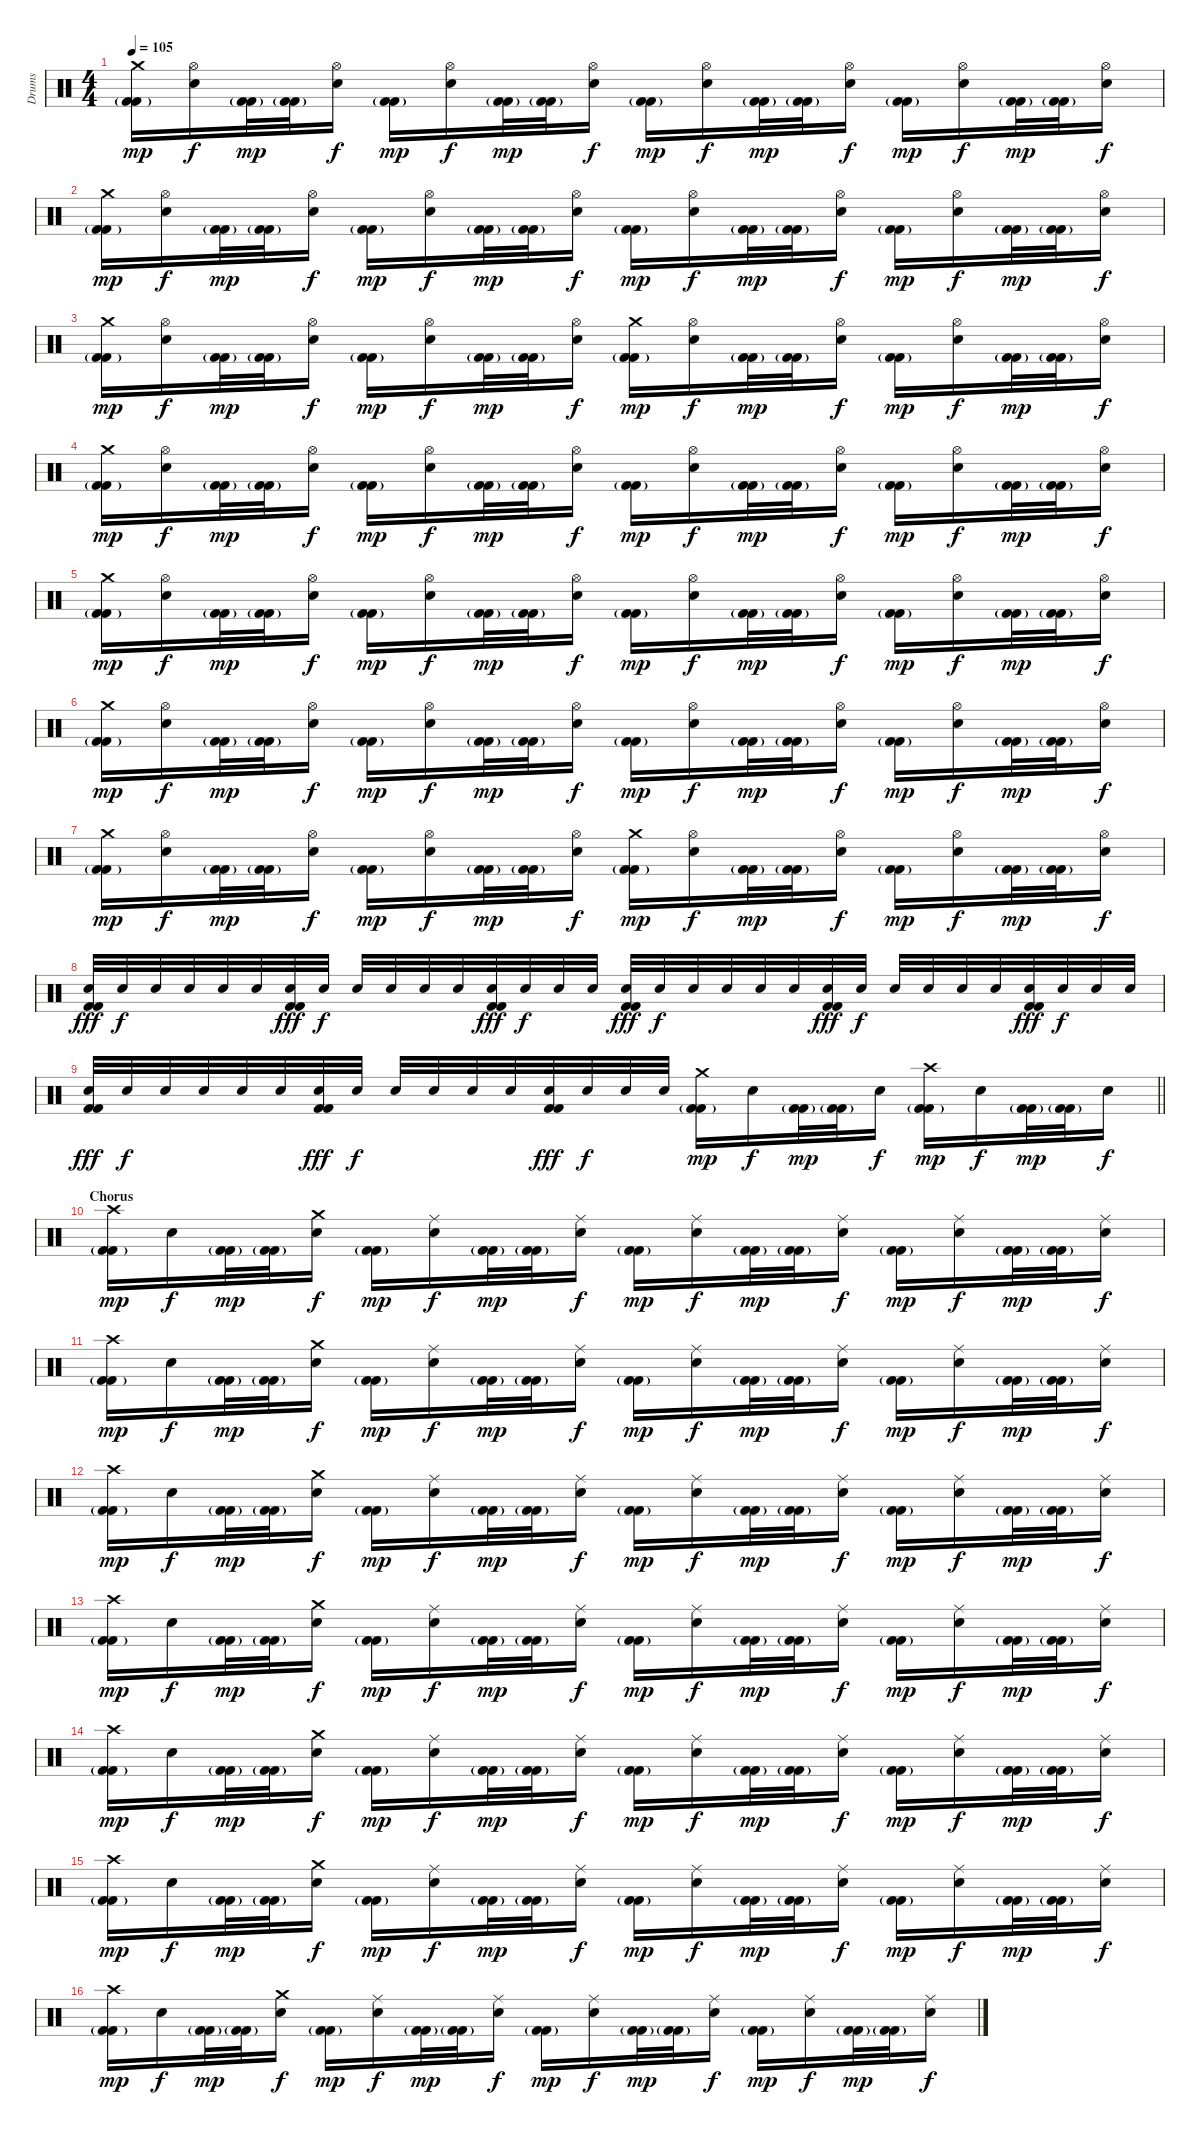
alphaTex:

\track ("Drums" "Drums") {instrument percussion}
\staff {score}
\articulation defaults
\ts (4 4)
\tempo 105
\clef neutral
\ks c
("Crash medium (hit)" "Kick (hit) 2"{g} "Kick (hit) 2").16{dy mp} ("Hi-Hat (open)" "Electric Snare (hit)").16{dy f} ("Kick (hit) 2"{g} "Kick (hit) 2").32{dy mp} ("Kick (hit) 2"{g} "Kick (hit) 2").32 ("Hi-Hat (open)" "Electric Snare (hit)").16{dy f} ("Kick (hit) 2"{g} "Kick (hit) 2").16{dy mp} ("Hi-Hat (open)" "Electric Snare (hit)").16{dy f} ("Kick (hit) 2"{g} "Kick (hit) 2").32{dy mp} ("Kick (hit) 2"{g} "Kick (hit) 2").32 ("Hi-Hat (open)" "Electric Snare (hit)").16{dy f} ("Kick (hit) 2"{g} "Kick (hit) 2").16{dy mp} ("Hi-Hat (open)" "Electric Snare (hit)").16{dy f} ("Kick (hit) 2"{g} "Kick (hit) 2").32{dy mp} ("Kick (hit) 2"{g} "Kick (hit) 2").32 ("Hi-Hat (open)" "Electric Snare (hit)").16{dy f} ("Kick (hit) 2"{g} "Kick (hit) 2").16{dy mp} ("Hi-Hat (open)" "Electric Snare (hit)").16{dy f} ("Kick (hit) 2"{g} "Kick (hit) 2").32{dy mp} ("Kick (hit) 2"{g} "Kick (hit) 2").32 ("Hi-Hat (open)" "Electric Snare (hit)").16{dy f} |
("Crash medium (hit)" "Kick (hit) 2"{g} "Kick (hit) 2").16{dy mp} ("Hi-Hat (open)" "Electric Snare (hit)").16{dy f} ("Kick (hit) 2"{g} "Kick (hit) 2").32{dy mp} ("Kick (hit) 2"{g} "Kick (hit) 2").32 ("Hi-Hat (open)" "Electric Snare (hit)").16{dy f} ("Kick (hit) 2"{g} "Kick (hit) 2").16{dy mp} ("Hi-Hat (open)" "Electric Snare (hit)").16{dy f} ("Kick (hit) 2"{g} "Kick (hit) 2").32{dy mp} ("Kick (hit) 2"{g} "Kick (hit) 2").32 ("Hi-Hat (open)" "Electric Snare (hit)").16{dy f} ("Kick (hit) 2"{g} "Kick (hit) 2").16{dy mp} ("Hi-Hat (open)" "Electric Snare (hit)").16{dy f} ("Kick (hit) 2"{g} "Kick (hit) 2").32{dy mp} ("Kick (hit) 2"{g} "Kick (hit) 2").32 ("Hi-Hat (open)" "Electric Snare (hit)").16{dy f} ("Kick (hit) 2"{g} "Kick (hit) 2").16{dy mp} ("Hi-Hat (open)" "Electric Snare (hit)").16{dy f} ("Kick (hit) 2"{g} "Kick (hit) 2").32{dy mp} ("Kick (hit) 2"{g} "Kick (hit) 2").32 ("Hi-Hat (open)" "Electric Snare (hit)").16{dy f} |
("Crash medium (hit)" "Kick (hit) 2"{g} "Kick (hit) 2").16{dy mp} ("Hi-Hat (open)" "Electric Snare (hit)").16{dy f} ("Kick (hit) 2"{g} "Kick (hit) 2").32{dy mp} ("Kick (hit) 2"{g} "Kick (hit) 2").32 ("Hi-Hat (open)" "Electric Snare (hit)").16{dy f} ("Kick (hit) 2"{g} "Kick (hit) 2").16{dy mp} ("Hi-Hat (open)" "Electric Snare (hit)").16{dy f} ("Kick (hit) 2"{g} "Kick (hit) 2").32{dy mp} ("Kick (hit) 2"{g} "Kick (hit) 2").32 ("Hi-Hat (open)" "Electric Snare (hit)").16{dy f} ("Crash medium (hit)" "Kick (hit) 2"{g} "Kick (hit) 2").16{dy mp} ("Hi-Hat (open)" "Electric Snare (hit)").16{dy f} ("Kick (hit) 2"{g} "Kick (hit) 2").32{dy mp} ("Kick (hit) 2"{g} "Kick (hit) 2").32 ("Hi-Hat (open)" "Electric Snare (hit)").16{dy f} ("Kick (hit) 2"{g} "Kick (hit) 2").16{dy mp} ("Hi-Hat (open)" "Electric Snare (hit)").16{dy f} ("Kick (hit) 2"{g} "Kick (hit) 2").32{dy mp} ("Kick (hit) 2"{g} "Kick (hit) 2").32 ("Hi-Hat (open)" "Electric Snare (hit)").16{dy f} |
("Crash medium (hit)" "Kick (hit) 2"{g} "Kick (hit) 2").16{dy mp} ("Hi-Hat (open)" "Electric Snare (hit)").16{dy f} ("Kick (hit) 2"{g} "Kick (hit) 2").32{dy mp} ("Kick (hit) 2"{g} "Kick (hit) 2").32 ("Hi-Hat (open)" "Electric Snare (hit)").16{dy f} ("Kick (hit) 2"{g} "Kick (hit) 2").16{dy mp} ("Hi-Hat (open)" "Electric Snare (hit)").16{dy f} ("Kick (hit) 2"{g} "Kick (hit) 2").32{dy mp} ("Kick (hit) 2"{g} "Kick (hit) 2").32 ("Hi-Hat (open)" "Electric Snare (hit)").16{dy f} ("Kick (hit) 2"{g} "Kick (hit) 2").16{dy mp} ("Hi-Hat (open)" "Electric Snare (hit)").16{dy f} ("Kick (hit) 2"{g} "Kick (hit) 2").32{dy mp} ("Kick (hit) 2"{g} "Kick (hit) 2").32 ("Hi-Hat (open)" "Electric Snare (hit)").16{dy f} ("Kick (hit) 2"{g} "Kick (hit) 2").16{dy mp} ("Hi-Hat (open)" "Electric Snare (hit)").16{dy f} ("Kick (hit) 2"{g} "Kick (hit) 2").32{dy mp} ("Kick (hit) 2"{g} "Kick (hit) 2").32 ("Hi-Hat (open)" "Electric Snare (hit)").16{dy f} |
("Crash medium (hit)" "Kick (hit) 2"{g} "Kick (hit) 2").16{dy mp} ("Hi-Hat (open)" "Electric Snare (hit)").16{dy f} ("Kick (hit) 2"{g} "Kick (hit) 2").32{dy mp} ("Kick (hit) 2"{g} "Kick (hit) 2").32 ("Hi-Hat (open)" "Electric Snare (hit)").16{dy f} ("Kick (hit) 2"{g} "Kick (hit) 2").16{dy mp} ("Hi-Hat (open)" "Electric Snare (hit)").16{dy f} ("Kick (hit) 2"{g} "Kick (hit) 2").32{dy mp} ("Kick (hit) 2"{g} "Kick (hit) 2").32 ("Hi-Hat (open)" "Electric Snare (hit)").16{dy f} ("Kick (hit) 2"{g} "Kick (hit) 2").16{dy mp} ("Hi-Hat (open)" "Electric Snare (hit)").16{dy f} ("Kick (hit) 2"{g} "Kick (hit) 2").32{dy mp} ("Kick (hit) 2"{g} "Kick (hit) 2").32 ("Hi-Hat (open)" "Electric Snare (hit)").16{dy f} ("Kick (hit) 2"{g} "Kick (hit) 2").16{dy mp} ("Hi-Hat (open)" "Electric Snare (hit)").16{dy f} ("Kick (hit) 2"{g} "Kick (hit) 2").32{dy mp} ("Kick (hit) 2"{g} "Kick (hit) 2").32 ("Hi-Hat (open)" "Electric Snare (hit)").16{dy f} |
("Crash medium (hit)" "Kick (hit) 2"{g} "Kick (hit) 2").16{dy mp} ("Hi-Hat (open)" "Electric Snare (hit)").16{dy f} ("Kick (hit) 2"{g} "Kick (hit) 2").32{dy mp} ("Kick (hit) 2"{g} "Kick (hit) 2").32 ("Hi-Hat (open)" "Electric Snare (hit)").16{dy f} ("Kick (hit) 2"{g} "Kick (hit) 2").16{dy mp} ("Hi-Hat (open)" "Electric Snare (hit)").16{dy f} ("Kick (hit) 2"{g} "Kick (hit) 2").32{dy mp} ("Kick (hit) 2"{g} "Kick (hit) 2").32 ("Hi-Hat (open)" "Electric Snare (hit)").16{dy f} ("Kick (hit) 2"{g} "Kick (hit) 2").16{dy mp} ("Hi-Hat (open)" "Electric Snare (hit)").16{dy f} ("Kick (hit) 2"{g} "Kick (hit) 2").32{dy mp} ("Kick (hit) 2"{g} "Kick (hit) 2").32 ("Hi-Hat (open)" "Electric Snare (hit)").16{dy f} ("Kick (hit) 2"{g} "Kick (hit) 2").16{dy mp} ("Hi-Hat (open)" "Electric Snare (hit)").16{dy f} ("Kick (hit) 2"{g} "Kick (hit) 2").32{dy mp} ("Kick (hit) 2"{g} "Kick (hit) 2").32 ("Hi-Hat (open)" "Electric Snare (hit)").16{dy f} |
("Crash medium (hit)" "Kick (hit) 2"{g} "Kick (hit) 2").16{dy mp} ("Hi-Hat (open)" "Electric Snare (hit)").16{dy f} ("Kick (hit) 2"{g} "Kick (hit) 2").32{dy mp} ("Kick (hit) 2"{g} "Kick (hit) 2").32 ("Hi-Hat (open)" "Electric Snare (hit)").16{dy f} ("Kick (hit) 2"{g} "Kick (hit) 2").16{dy mp} ("Hi-Hat (open)" "Electric Snare (hit)").16{dy f} ("Kick (hit) 2"{g} "Kick (hit) 2").32{dy mp} ("Kick (hit) 2"{g} "Kick (hit) 2").32 ("Hi-Hat (open)" "Electric Snare (hit)").16{dy f} ("Crash medium (hit)" "Kick (hit) 2"{g} "Kick (hit) 2").16{dy mp} ("Hi-Hat (open)" "Electric Snare (hit)").16{dy f} ("Kick (hit) 2"{g} "Kick (hit) 2").32{dy mp} ("Kick (hit) 2"{g} "Kick (hit) 2").32 ("Hi-Hat (open)" "Electric Snare (hit)").16{dy f} ("Kick (hit) 2"{g} "Kick (hit) 2").16{dy mp} ("Hi-Hat (open)" "Electric Snare (hit)").16{dy f} ("Kick (hit) 2"{g} "Kick (hit) 2").32{dy mp} ("Kick (hit) 2"{g} "Kick (hit) 2").32 ("Hi-Hat (open)" "Electric Snare (hit)").16{dy f} |
("Electric Snare (hit)" "Kick (hit) 2" "Kick (hit) 2").32{dy fff} "Electric Snare (hit)".32{dy f} "Electric Snare (hit)".32 "Electric Snare (hit)".32 "Electric Snare (hit)".32 "Electric Snare (hit)".32 ("Electric Snare (hit)" "Kick (hit) 2" "Kick (hit) 2").32{dy fff} "Electric Snare (hit)".32{dy f} "Electric Snare (hit)".32 "Electric Snare (hit)".32 "Electric Snare (hit)".32 "Electric Snare (hit)".32 ("Electric Snare (hit)" "Kick (hit) 2" "Kick (hit) 2").32{dy fff} "Electric Snare (hit)".32{dy f} "Electric Snare (hit)".32 "Electric Snare (hit)".32 ("Electric Snare (hit)" "Kick (hit) 2" "Kick (hit) 2").32{dy fff} "Electric Snare (hit)".32{dy f} "Electric Snare (hit)".32 "Electric Snare (hit)".32 "Electric Snare (hit)".32 "Electric Snare (hit)".32 ("Electric Snare (hit)" "Kick (hit) 2" "Kick (hit) 2").32{dy fff} "Electric Snare (hit)".32{dy f} "Electric Snare (hit)".32 "Electric Snare (hit)".32 "Electric Snare (hit)".32 "Electric Snare (hit)".32 ("Electric Snare (hit)" "Kick (hit) 2" "Kick (hit) 2").32{dy fff} "Electric Snare (hit)".32{dy f} "Electric Snare (hit)".32 "Electric Snare (hit)".32 |
\barLineRight lightlight
("Electric Snare (hit)" "Kick (hit) 2" "Kick (hit) 2").32{dy fff} "Electric Snare (hit)".32{dy f} "Electric Snare (hit)".32 "Electric Snare (hit)".32 "Electric Snare (hit)".32 "Electric Snare (hit)".32 ("Electric Snare (hit)" "Kick (hit) 2" "Kick (hit) 2").32{dy fff} "Electric Snare (hit)".32{dy f} "Electric Snare (hit)".32 "Electric Snare (hit)".32 "Electric Snare (hit)".32 "Electric Snare (hit)".32 ("Electric Snare (hit)" "Kick (hit) 2" "Kick (hit) 2").32{dy fff} "Electric Snare (hit)".32{dy f} "Electric Snare (hit)".32 "Electric Snare (hit)".32 ("Crash medium (hit)" "Kick (hit) 2"{g} "Kick (hit) 2").16{dy mp} "Electric Snare (hit)".16{dy f} ("Kick (hit) 2"{g} "Kick (hit) 2").32{dy mp} ("Kick (hit) 2"{g} "Kick (hit) 2").32 "Electric Snare (hit)".16{dy f} ("Crash high (hit)" "Kick (hit) 2"{g} "Kick (hit) 2").16{dy mp} "Electric Snare (hit)".16{dy f} ("Kick (hit) 2"{g} "Kick (hit) 2").32{dy mp} ("Kick (hit) 2"{g} "Kick (hit) 2").32 "Electric Snare (hit)".16{dy f} |
\section ("" "Chorus")
("Crash high (hit)" "Kick (hit) 2"{g} "Kick (hit) 2").16{dy mp} "Electric Snare (hit)".16{dy f} ("Kick (hit) 2"{g} "Kick (hit) 2").32{dy mp} ("Kick (hit) 2"{g} "Kick (hit) 2").32 ("Crash medium (hit)" "Electric Snare (hit)").16{dy f} ("Kick (hit) 2"{g} "Kick (hit) 2").16{dy mp} ("Ride (middle)" "Electric Snare (hit)").16{dy f} ("Kick (hit) 2"{g} "Kick (hit) 2").32{dy mp} ("Kick (hit) 2"{g} "Kick (hit) 2").32 ("Ride (middle)" "Electric Snare (hit)").16{dy f} ("Kick (hit) 2"{g} "Kick (hit) 2").16{dy mp} ("Ride (middle)" "Electric Snare (hit)").16{dy f} ("Kick (hit) 2"{g} "Kick (hit) 2").32{dy mp} ("Kick (hit) 2"{g} "Kick (hit) 2").32 ("Ride (middle)" "Electric Snare (hit)").16{dy f} ("Kick (hit) 2"{g} "Kick (hit) 2").16{dy mp} ("Ride (middle)" "Electric Snare (hit)").16{dy f} ("Kick (hit) 2"{g} "Kick (hit) 2").32{dy mp} ("Kick (hit) 2"{g} "Kick (hit) 2").32 ("Ride (middle)" "Electric Snare (hit)").16{dy f} |
("Crash high (hit)" "Kick (hit) 2"{g} "Kick (hit) 2").16{dy mp} "Electric Snare (hit)".16{dy f} ("Kick (hit) 2"{g} "Kick (hit) 2").32{dy mp} ("Kick (hit) 2"{g} "Kick (hit) 2").32 ("Crash medium (hit)" "Electric Snare (hit)").16{dy f} ("Kick (hit) 2"{g} "Kick (hit) 2").16{dy mp} ("Ride (middle)" "Electric Snare (hit)").16{dy f} ("Kick (hit) 2"{g} "Kick (hit) 2").32{dy mp} ("Kick (hit) 2"{g} "Kick (hit) 2").32 ("Ride (middle)" "Electric Snare (hit)").16{dy f} ("Kick (hit) 2"{g} "Kick (hit) 2").16{dy mp} ("Ride (middle)" "Electric Snare (hit)").16{dy f} ("Kick (hit) 2"{g} "Kick (hit) 2").32{dy mp} ("Kick (hit) 2"{g} "Kick (hit) 2").32 ("Ride (middle)" "Electric Snare (hit)").16{dy f} ("Kick (hit) 2"{g} "Kick (hit) 2").16{dy mp} ("Ride (middle)" "Electric Snare (hit)").16{dy f} ("Kick (hit) 2"{g} "Kick (hit) 2").32{dy mp} ("Kick (hit) 2"{g} "Kick (hit) 2").32 ("Ride (middle)" "Electric Snare (hit)").16{dy f} |
("Crash high (hit)" "Kick (hit) 2"{g} "Kick (hit) 2").16{dy mp} "Electric Snare (hit)".16{dy f} ("Kick (hit) 2"{g} "Kick (hit) 2").32{dy mp} ("Kick (hit) 2"{g} "Kick (hit) 2").32 ("Crash medium (hit)" "Electric Snare (hit)").16{dy f} ("Kick (hit) 2"{g} "Kick (hit) 2").16{dy mp} ("Ride (middle)" "Electric Snare (hit)").16{dy f} ("Kick (hit) 2"{g} "Kick (hit) 2").32{dy mp} ("Kick (hit) 2"{g} "Kick (hit) 2").32 ("Ride (middle)" "Electric Snare (hit)").16{dy f} ("Kick (hit) 2"{g} "Kick (hit) 2").16{dy mp} ("Ride (middle)" "Electric Snare (hit)").16{dy f} ("Kick (hit) 2"{g} "Kick (hit) 2").32{dy mp} ("Kick (hit) 2"{g} "Kick (hit) 2").32 ("Ride (middle)" "Electric Snare (hit)").16{dy f} ("Kick (hit) 2"{g} "Kick (hit) 2").16{dy mp} ("Ride (middle)" "Electric Snare (hit)").16{dy f} ("Kick (hit) 2"{g} "Kick (hit) 2").32{dy mp} ("Kick (hit) 2"{g} "Kick (hit) 2").32 ("Ride (middle)" "Electric Snare (hit)").16{dy f} |
("Crash high (hit)" "Kick (hit) 2"{g} "Kick (hit) 2").16{dy mp} "Electric Snare (hit)".16{dy f} ("Kick (hit) 2"{g} "Kick (hit) 2").32{dy mp} ("Kick (hit) 2"{g} "Kick (hit) 2").32 ("Crash medium (hit)" "Electric Snare (hit)").16{dy f} ("Kick (hit) 2"{g} "Kick (hit) 2").16{dy mp} ("Ride (middle)" "Electric Snare (hit)").16{dy f} ("Kick (hit) 2"{g} "Kick (hit) 2").32{dy mp} ("Kick (hit) 2"{g} "Kick (hit) 2").32 ("Ride (middle)" "Electric Snare (hit)").16{dy f} ("Kick (hit) 2"{g} "Kick (hit) 2").16{dy mp} ("Ride (middle)" "Electric Snare (hit)").16{dy f} ("Kick (hit) 2"{g} "Kick (hit) 2").32{dy mp} ("Kick (hit) 2"{g} "Kick (hit) 2").32 ("Ride (middle)" "Electric Snare (hit)").16{dy f} ("Kick (hit) 2"{g} "Kick (hit) 2").16{dy mp} ("Ride (middle)" "Electric Snare (hit)").16{dy f} ("Kick (hit) 2"{g} "Kick (hit) 2").32{dy mp} ("Kick (hit) 2"{g} "Kick (hit) 2").32 ("Ride (middle)" "Electric Snare (hit)").16{dy f} |
("Crash high (hit)" "Kick (hit) 2"{g} "Kick (hit) 2").16{dy mp} "Electric Snare (hit)".16{dy f} ("Kick (hit) 2"{g} "Kick (hit) 2").32{dy mp} ("Kick (hit) 2"{g} "Kick (hit) 2").32 ("Crash medium (hit)" "Electric Snare (hit)").16{dy f} ("Kick (hit) 2"{g} "Kick (hit) 2").16{dy mp} ("Ride (middle)" "Electric Snare (hit)").16{dy f} ("Kick (hit) 2"{g} "Kick (hit) 2").32{dy mp} ("Kick (hit) 2"{g} "Kick (hit) 2").32 ("Ride (middle)" "Electric Snare (hit)").16{dy f} ("Kick (hit) 2"{g} "Kick (hit) 2").16{dy mp} ("Ride (middle)" "Electric Snare (hit)").16{dy f} ("Kick (hit) 2"{g} "Kick (hit) 2").32{dy mp} ("Kick (hit) 2"{g} "Kick (hit) 2").32 ("Ride (middle)" "Electric Snare (hit)").16{dy f} ("Kick (hit) 2"{g} "Kick (hit) 2").16{dy mp} ("Ride (middle)" "Electric Snare (hit)").16{dy f} ("Kick (hit) 2"{g} "Kick (hit) 2").32{dy mp} ("Kick (hit) 2"{g} "Kick (hit) 2").32 ("Ride (middle)" "Electric Snare (hit)").16{dy f} |
("Crash high (hit)" "Kick (hit) 2"{g} "Kick (hit) 2").16{dy mp} "Electric Snare (hit)".16{dy f} ("Kick (hit) 2"{g} "Kick (hit) 2").32{dy mp} ("Kick (hit) 2"{g} "Kick (hit) 2").32 ("Crash medium (hit)" "Electric Snare (hit)").16{dy f} ("Kick (hit) 2"{g} "Kick (hit) 2").16{dy mp} ("Ride (middle)" "Electric Snare (hit)").16{dy f} ("Kick (hit) 2"{g} "Kick (hit) 2").32{dy mp} ("Kick (hit) 2"{g} "Kick (hit) 2").32 ("Ride (middle)" "Electric Snare (hit)").16{dy f} ("Kick (hit) 2"{g} "Kick (hit) 2").16{dy mp} ("Ride (middle)" "Electric Snare (hit)").16{dy f} ("Kick (hit) 2"{g} "Kick (hit) 2").32{dy mp} ("Kick (hit) 2"{g} "Kick (hit) 2").32 ("Ride (middle)" "Electric Snare (hit)").16{dy f} ("Kick (hit) 2"{g} "Kick (hit) 2").16{dy mp} ("Ride (middle)" "Electric Snare (hit)").16{dy f} ("Kick (hit) 2"{g} "Kick (hit) 2").32{dy mp} ("Kick (hit) 2"{g} "Kick (hit) 2").32 ("Ride (middle)" "Electric Snare (hit)").16{dy f} |
("Crash high (hit)" "Kick (hit) 2"{g} "Kick (hit) 2").16{dy mp} "Electric Snare (hit)".16{dy f} ("Kick (hit) 2"{g} "Kick (hit) 2").32{dy mp} ("Kick (hit) 2"{g} "Kick (hit) 2").32 ("Crash medium (hit)" "Electric Snare (hit)").16{dy f} ("Kick (hit) 2"{g} "Kick (hit) 2").16{dy mp} ("Ride (middle)" "Electric Snare (hit)").16{dy f} ("Kick (hit) 2"{g} "Kick (hit) 2").32{dy mp} ("Kick (hit) 2"{g} "Kick (hit) 2").32 ("Ride (middle)" "Electric Snare (hit)").16{dy f} ("Kick (hit) 2"{g} "Kick (hit) 2").16{dy mp} ("Ride (middle)" "Electric Snare (hit)").16{dy f} ("Kick (hit) 2"{g} "Kick (hit) 2").32{dy mp} ("Kick (hit) 2"{g} "Kick (hit) 2").32 ("Ride (middle)" "Electric Snare (hit)").16{dy f} ("Kick (hit) 2"{g} "Kick (hit) 2").16{dy mp} ("Ride (middle)" "Electric Snare (hit)").16{dy f} ("Kick (hit) 2"{g} "Kick (hit) 2").32{dy mp} ("Kick (hit) 2"{g} "Kick (hit) 2").32 ("Ride (middle)" "Electric Snare (hit)").16{dy f}
